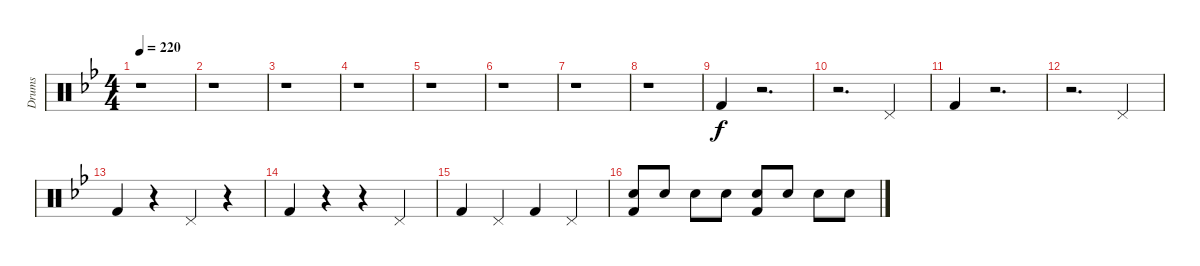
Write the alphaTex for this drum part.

\track ("Drums" "Drums") {instrument percussion}
\staff {score}
\articulation defaults
\ts (4 4)
\tempo 220
\clef neutral
\ks gminor
r.1{dy f} |
r.1 |
r.1 |
r.1 |
r.1 |
r.1 |
r.1 |
r.1 |
"Kick (hit) 2".4 r.2{d} |
r.2{d} "Pedal Hi-Hat (hit)".4 |
"Kick (hit) 2".4 r.2{d} |
r.2{d} "Pedal Hi-Hat (hit)".4 |
"Kick (hit) 2".4 r.4 "Pedal Hi-Hat (hit)".4 r.4 |
"Kick (hit) 2".4 r.4 r.4 "Pedal Hi-Hat (hit)".4 |
"Kick (hit) 2".4 "Pedal Hi-Hat (hit)".4 "Kick (hit) 2".4 "Pedal Hi-Hat (hit)".4 |
("Kick (hit) 2" "Snare (hit) 2").8 "Snare (hit) 2".8 "Snare (hit) 2".8 "Snare (hit) 2".8 ("Kick (hit) 2" "Snare (hit) 2").8 "Snare (hit) 2".8 "Snare (hit) 2".8 "Snare (hit) 2".8
